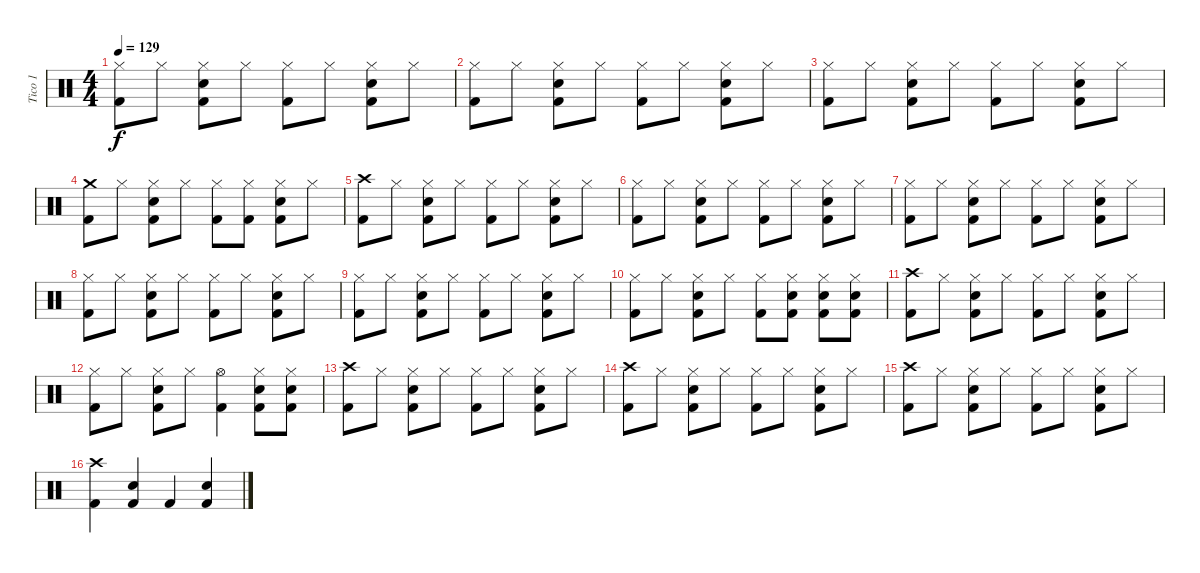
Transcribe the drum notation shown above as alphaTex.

\track ("Tico 1" "Tico 1") {instrument percussion}
\staff {score}
\articulation defaults
\ts (4 4)
\tempo 129
\clef neutral
\ks c
("Hi-Hat (closed)" "Kick (hit) 2").8{dy f} "Hi-Hat (closed)".8 ("Hi-Hat (closed)" "Snare (hit) 2" "Kick (hit) 2").8 "Hi-Hat (closed)".8 ("Hi-Hat (closed)" "Kick (hit) 2").8 "Hi-Hat (closed)".8 ("Hi-Hat (closed)" "Snare (hit) 2" "Kick (hit) 2").8 "Hi-Hat (closed)".8 |
("Hi-Hat (closed)" "Kick (hit) 2").8 "Hi-Hat (closed)".8 ("Hi-Hat (closed)" "Snare (hit) 2" "Kick (hit) 2").8 "Hi-Hat (closed)".8 ("Hi-Hat (closed)" "Kick (hit) 2").8 "Hi-Hat (closed)".8 ("Hi-Hat (closed)" "Snare (hit) 2" "Kick (hit) 2").8 "Hi-Hat (closed)".8 |
("Hi-Hat (closed)" "Kick (hit) 2").8 "Hi-Hat (closed)".8 ("Hi-Hat (closed)" "Snare (hit) 2" "Kick (hit) 2").8 "Hi-Hat (closed)".8 ("Hi-Hat (closed)" "Kick (hit) 2").8 "Hi-Hat (closed)".8 ("Hi-Hat (closed)" "Snare (hit) 2" "Kick (hit) 2").8 "Hi-Hat (closed)".8 |
("Crash medium (hit)" "Kick (hit) 2").8 "Hi-Hat (closed)".8 ("Hi-Hat (closed)" "Snare (hit) 2" "Kick (hit) 2").8 "Hi-Hat (closed)".8 ("Hi-Hat (closed)" "Kick (hit) 2").8 ("Hi-Hat (closed)" "Kick (hit) 2").8 ("Hi-Hat (closed)" "Snare (hit) 2" "Kick (hit) 2").8 "Hi-Hat (closed)".8 |
("Crash high (hit)" "Kick (hit) 2").8 "Hi-Hat (closed)".8 ("Hi-Hat (closed)" "Snare (hit) 2" "Kick (hit) 2").8 "Hi-Hat (closed)".8 ("Hi-Hat (closed)" "Kick (hit) 2").8 "Hi-Hat (closed)".8 ("Hi-Hat (closed)" "Snare (hit) 2" "Kick (hit) 2").8 "Hi-Hat (closed)".8 |
("Hi-Hat (closed)" "Kick (hit) 2").8 "Hi-Hat (closed)".8 ("Hi-Hat (closed)" "Snare (hit) 2" "Kick (hit) 2").8 "Hi-Hat (closed)".8 ("Hi-Hat (closed)" "Kick (hit) 2").8 "Hi-Hat (closed)".8 ("Hi-Hat (closed)" "Snare (hit) 2" "Kick (hit) 2").8 "Hi-Hat (closed)".8 |
("Hi-Hat (closed)" "Kick (hit) 2").8 "Hi-Hat (closed)".8 ("Hi-Hat (closed)" "Snare (hit) 2" "Kick (hit) 2").8 "Hi-Hat (closed)".8 ("Hi-Hat (closed)" "Kick (hit) 2").8 "Hi-Hat (closed)".8 ("Hi-Hat (closed)" "Snare (hit) 2" "Kick (hit) 2").8 "Hi-Hat (closed)".8 |
("Hi-Hat (closed)" "Kick (hit) 2").8 "Hi-Hat (closed)".8 ("Hi-Hat (closed)" "Snare (hit) 2" "Kick (hit) 2").8 "Hi-Hat (closed)".8 ("Hi-Hat (closed)" "Kick (hit) 2").8 "Hi-Hat (closed)".8 ("Hi-Hat (closed)" "Snare (hit) 2" "Kick (hit) 2").8 "Hi-Hat (closed)".8 |
("Hi-Hat (closed)" "Kick (hit) 2").8 "Hi-Hat (closed)".8 ("Hi-Hat (closed)" "Snare (hit) 2" "Kick (hit) 2").8 "Hi-Hat (closed)".8 ("Hi-Hat (closed)" "Kick (hit) 2").8 "Hi-Hat (closed)".8 ("Hi-Hat (closed)" "Snare (hit) 2" "Kick (hit) 2").8 "Hi-Hat (closed)".8 |
("Hi-Hat (closed)" "Kick (hit) 2").8 "Hi-Hat (closed)".8 ("Hi-Hat (closed)" "Snare (hit) 2" "Kick (hit) 2").8 "Hi-Hat (closed)".8 ("Hi-Hat (closed)" "Kick (hit) 2").8 ("Hi-Hat (closed)" "Snare (hit) 2" "Kick (hit) 2").8 ("Hi-Hat (closed)" "Snare (hit) 2" "Kick (hit) 2").8 ("Hi-Hat (closed)" "Snare (hit) 2" "Kick (hit) 2").8 |
("Crash high (hit)" "Kick (hit) 2").8 "Hi-Hat (closed)".8 ("Hi-Hat (closed)" "Snare (hit) 2" "Kick (hit) 2").8 "Hi-Hat (closed)".8 ("Hi-Hat (closed)" "Kick (hit) 2").8 "Hi-Hat (closed)".8 ("Hi-Hat (closed)" "Snare (hit) 2" "Kick (hit) 2").8 "Hi-Hat (closed)".8 |
("Hi-Hat (closed)" "Kick (hit) 2").8 "Hi-Hat (closed)".8 ("Hi-Hat (closed)" "Snare (hit) 2" "Kick (hit) 2").8 "Hi-Hat (closed)".8 ("Hi-Hat (open)" "Kick (hit) 2").4 ("Hi-Hat (closed)" "Snare (hit) 2" "Kick (hit) 2").8 ("Hi-Hat (closed)" "Snare (hit) 2" "Kick (hit) 2").8 |
("Crash high (hit)" "Kick (hit) 2").8 "Hi-Hat (closed)".8 ("Hi-Hat (closed)" "Snare (hit) 2" "Kick (hit) 2").8 "Hi-Hat (closed)".8 ("Hi-Hat (closed)" "Kick (hit) 2").8 "Hi-Hat (closed)".8 ("Hi-Hat (closed)" "Snare (hit) 2" "Kick (hit) 2").8 "Hi-Hat (closed)".8 |
("Crash high (hit)" "Kick (hit) 2").8 "Hi-Hat (closed)".8 ("Hi-Hat (closed)" "Snare (hit) 2" "Kick (hit) 2").8 "Hi-Hat (closed)".8 ("Hi-Hat (closed)" "Kick (hit) 2").8 "Hi-Hat (closed)".8 ("Hi-Hat (closed)" "Snare (hit) 2" "Kick (hit) 2").8 "Hi-Hat (closed)".8 |
("Crash high (hit)" "Kick (hit) 2").8 "Hi-Hat (closed)".8 ("Hi-Hat (closed)" "Snare (hit) 2" "Kick (hit) 2").8 "Hi-Hat (closed)".8 ("Hi-Hat (closed)" "Kick (hit) 2").8 "Hi-Hat (closed)".8 ("Hi-Hat (closed)" "Snare (hit) 2" "Kick (hit) 2").8 "Hi-Hat (closed)".8 |
("Crash high (hit)" "Kick (hit) 2").4 ("Snare (hit) 2" "Kick (hit) 2").4 "Kick (hit) 2".4 ("Snare (hit) 2" "Kick (hit) 2").4
